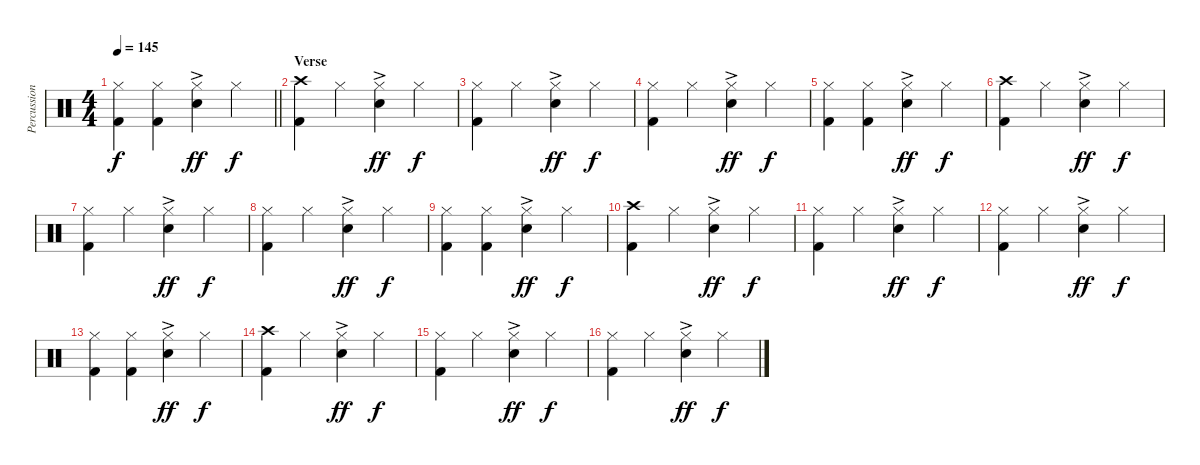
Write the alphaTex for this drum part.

\track ("Percussion" "Percussion") {instrument percussion}
\staff {score}
\articulation defaults
\ts (4 4)
\tempo 145
\clef neutral
\barLineRight lightlight
\ks c
("Hi-Hat (closed)" "Kick (hit) 2").4{dy f} ("Hi-Hat (closed)" "Kick (hit) 2").4 ("Hi-Hat (closed)" "Electric Snare (hit)"{ac}).4{dy ff} "Hi-Hat (closed)".4{dy f} |
\section ("" "Verse")
("Crash high (hit)" "Kick (hit) 2").4 "Hi-Hat (closed)".4 ("Hi-Hat (closed)" "Electric Snare (hit)"{ac}).4{dy ff} "Hi-Hat (closed)".4{dy f} |
("Hi-Hat (closed)" "Kick (hit) 2").4 "Hi-Hat (closed)".4 ("Hi-Hat (closed)" "Electric Snare (hit)"{ac}).4{dy ff} "Hi-Hat (closed)".4{dy f} |
("Hi-Hat (closed)" "Kick (hit) 2").4 "Hi-Hat (closed)".4 ("Hi-Hat (closed)" "Electric Snare (hit)"{ac}).4{dy ff} "Hi-Hat (closed)".4{dy f} |
("Hi-Hat (closed)" "Kick (hit) 2").4 ("Hi-Hat (closed)" "Kick (hit) 2").4 ("Hi-Hat (closed)" "Electric Snare (hit)"{ac}).4{dy ff} "Hi-Hat (closed)".4{dy f} |
("Crash high (hit)" "Kick (hit) 2").4 "Hi-Hat (closed)".4 ("Hi-Hat (closed)" "Electric Snare (hit)"{ac}).4{dy ff} "Hi-Hat (closed)".4{dy f} |
("Hi-Hat (closed)" "Kick (hit) 2").4 "Hi-Hat (closed)".4 ("Hi-Hat (closed)" "Electric Snare (hit)"{ac}).4{dy ff} "Hi-Hat (closed)".4{dy f} |
("Hi-Hat (closed)" "Kick (hit) 2").4 "Hi-Hat (closed)".4 ("Hi-Hat (closed)" "Electric Snare (hit)"{ac}).4{dy ff} "Hi-Hat (closed)".4{dy f} |
("Hi-Hat (closed)" "Kick (hit) 2").4 ("Hi-Hat (closed)" "Kick (hit) 2").4 ("Hi-Hat (closed)" "Electric Snare (hit)"{ac}).4{dy ff} "Hi-Hat (closed)".4{dy f} |
("Crash high (hit)" "Kick (hit) 2").4 "Hi-Hat (closed)".4 ("Hi-Hat (closed)" "Electric Snare (hit)"{ac}).4{dy ff} "Hi-Hat (closed)".4{dy f} |
("Hi-Hat (closed)" "Kick (hit) 2").4 "Hi-Hat (closed)".4 ("Hi-Hat (closed)" "Electric Snare (hit)"{ac}).4{dy ff} "Hi-Hat (closed)".4{dy f} |
("Hi-Hat (closed)" "Kick (hit) 2").4 "Hi-Hat (closed)".4 ("Hi-Hat (closed)" "Electric Snare (hit)"{ac}).4{dy ff} "Hi-Hat (closed)".4{dy f} |
("Hi-Hat (closed)" "Kick (hit) 2").4 ("Hi-Hat (closed)" "Kick (hit) 2").4 ("Hi-Hat (closed)" "Electric Snare (hit)"{ac}).4{dy ff} "Hi-Hat (closed)".4{dy f} |
("Crash high (hit)" "Kick (hit) 2").4 "Hi-Hat (closed)".4 ("Hi-Hat (closed)" "Electric Snare (hit)"{ac}).4{dy ff} "Hi-Hat (closed)".4{dy f} |
("Hi-Hat (closed)" "Kick (hit) 2").4 "Hi-Hat (closed)".4 ("Hi-Hat (closed)" "Electric Snare (hit)"{ac}).4{dy ff} "Hi-Hat (closed)".4{dy f} |
("Hi-Hat (closed)" "Kick (hit) 2").4 "Hi-Hat (closed)".4 ("Hi-Hat (closed)" "Electric Snare (hit)"{ac}).4{dy ff} "Hi-Hat (closed)".4{dy f}
